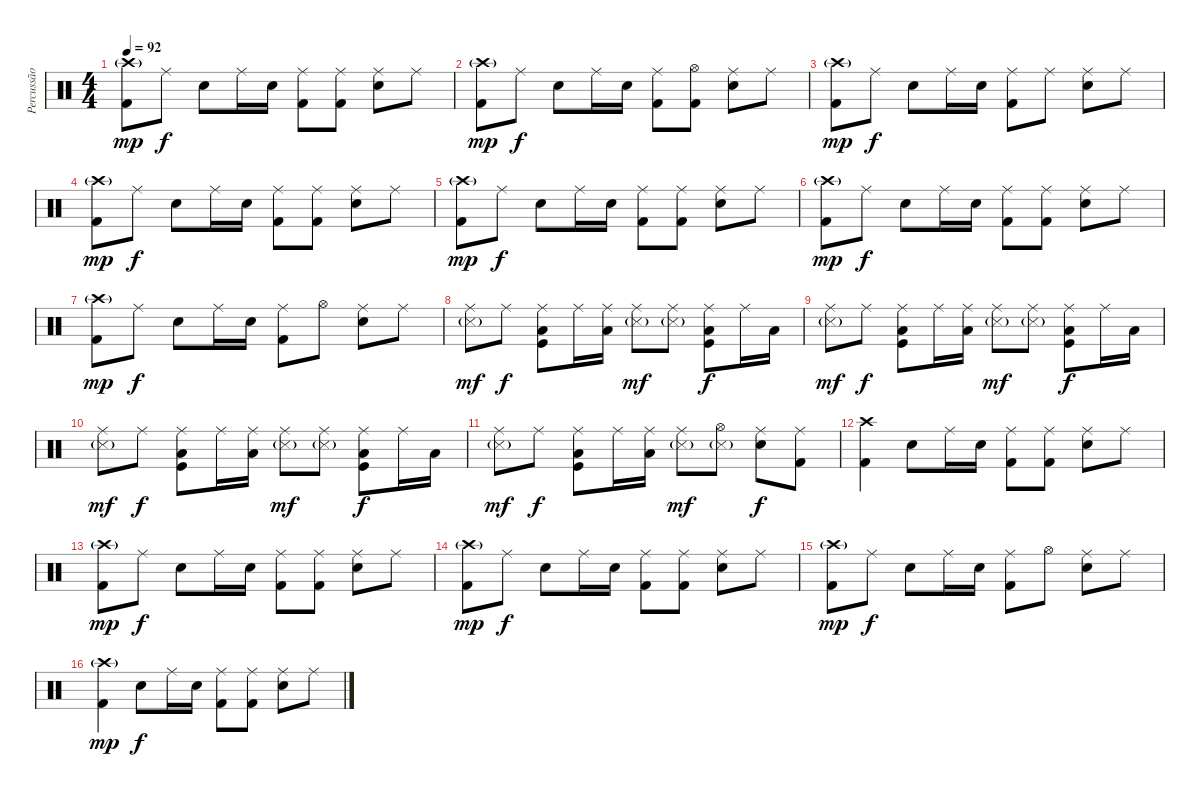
\track ("Percussão - Drums" "Percussão ") {instrument percussion}
\staff {score}
\articulation defaults
\ts (4 4)
\tempo 92
\clef neutral
\ks c
("Crash high (hit)"{g} "Kick (hit) 2").8{dy mp} "Ride (middle)".8{dy f} "Snare (hit) 2".8 "Ride (middle)".16 "Snare (hit) 2".16 ("Ride (middle)" "Kick (hit) 2").8 ("Ride (middle)" "Kick (hit) 2").8 ("Ride (middle)" "Snare (hit) 2").8 "Ride (middle)".8 |
("Crash high (hit)"{g} "Kick (hit) 2").8{dy mp} "Ride (middle)".8{dy f} "Snare (hit) 2".8 "Ride (middle)".16 "Snare (hit) 2".16 ("Ride (middle)" "Kick (hit) 2").8 ("Hi-Hat (open)" "Kick (hit) 2").8 ("Ride (middle)" "Snare (hit) 2").8 "Ride (middle)".8 |
("Crash high (hit)"{g} "Kick (hit) 2").8{dy mp} "Ride (middle)".8{dy f} "Snare (hit) 2".8 "Ride (middle)".16 "Snare (hit) 2".16 ("Ride (middle)" "Kick (hit) 2").8 "Ride (middle)".8 ("Ride (middle)" "Snare (hit) 2").8 "Ride (middle)".8 |
("Crash high (hit)"{g} "Kick (hit) 2").8{dy mp} "Ride (middle)".8{dy f} "Snare (hit) 2".8 "Ride (middle)".16 "Snare (hit) 2".16 ("Ride (middle)" "Kick (hit) 2").8 ("Ride (middle)" "Kick (hit) 2").8 ("Ride (middle)" "Snare (hit) 2").8 "Ride (middle)".8 |
("Crash high (hit)"{g} "Kick (hit) 2").8{dy mp} "Ride (middle)".8{dy f} "Snare (hit) 2".8 "Ride (middle)".16 "Snare (hit) 2".16 ("Ride (middle)" "Kick (hit) 2").8 ("Ride (middle)" "Kick (hit) 2").8 ("Ride (middle)" "Snare (hit) 2").8 "Ride (middle)".8 |
("Crash high (hit)"{g} "Kick (hit) 2").8{dy mp} "Ride (middle)".8{dy f} "Snare (hit) 2".8 "Ride (middle)".16 "Snare (hit) 2".16 ("Ride (middle)" "Kick (hit) 2").8 ("Ride (middle)" "Kick (hit) 2").8 ("Ride (middle)" "Snare (hit) 2").8 "Ride (middle)".8 |
("Crash high (hit)"{g} "Kick (hit) 2").8{dy mp} "Ride (middle)".8{dy f} "Snare (hit) 2".8 "Ride (middle)".16 "Snare (hit) 2".16 ("Ride (middle)" "Kick (hit) 2").8 "Hi-Hat (open)".8 ("Ride (middle)" "Snare (hit) 2").8 "Ride (middle)".8 |
("Ride (middle)" "Metronome (hit)"{g}).8{dy mf} "Ride (middle)".8{dy f} ("Ride (middle)" "Kick (hit)" "Low Floor Tom (hit)").8 "Ride (middle)".16 ("Ride (middle)" "Low Floor Tom (hit)").16 ("Ride (middle)" "Metronome (hit)"{g}).8{dy mf} ("Ride (middle)" "Metronome (hit)"{g}).8 ("Ride (middle)" "Kick (hit)" "Low Floor Tom (hit)").8{dy f} "Ride (middle)".16 "Low Floor Tom (hit)".16 |
("Ride (middle)" "Metronome (hit)"{g}).8{dy mf} "Ride (middle)".8{dy f} ("Ride (middle)" "Kick (hit)" "Low Floor Tom (hit)").8 "Ride (middle)".16 ("Ride (middle)" "Low Floor Tom (hit)").16 ("Ride (middle)" "Metronome (hit)"{g}).8{dy mf} ("Ride (middle)" "Metronome (hit)"{g}).8 ("Ride (middle)" "Kick (hit)" "Low Floor Tom (hit)").8{dy f} "Ride (middle)".16 "Low Floor Tom (hit)".16 |
("Ride (middle)" "Metronome (hit)"{g}).8{dy mf} "Ride (middle)".8{dy f} ("Ride (middle)" "Kick (hit)" "Low Floor Tom (hit)").8 "Ride (middle)".16 ("Ride (middle)" "Low Floor Tom (hit)").16 ("Ride (middle)" "Metronome (hit)"{g}).8{dy mf} ("Ride (middle)" "Metronome (hit)"{g}).8 ("Ride (middle)" "Kick (hit)" "Low Floor Tom (hit)").8{dy f} "Ride (middle)".16 "Low Floor Tom (hit)".16 |
("Ride (middle)" "Metronome (hit)"{g}).8{dy mf} "Ride (middle)".8{dy f} ("Ride (middle)" "Kick (hit)" "Low Floor Tom (hit)").8 "Ride (middle)".16 ("Ride (middle)" "Low Floor Tom (hit)").16 ("Ride (middle)" "Metronome (hit)"{g}).8{dy mf} ("Hi-Hat (open)" "Metronome (hit)"{g}).8 ("Ride (middle)" "Snare (hit) 2").8{dy f} ("Ride (middle)" "Kick (hit) 2").8 |
("Crash high (hit)" "Kick (hit) 2").4 "Snare (hit) 2".8 "Ride (middle)".16 "Snare (hit) 2".16 ("Ride (middle)" "Kick (hit) 2").8 ("Ride (middle)" "Kick (hit) 2").8 ("Ride (middle)" "Snare (hit) 2").8 "Ride (middle)".8 |
("Crash high (hit)"{g} "Kick (hit) 2").8{dy mp} "Ride (middle)".8{dy f} "Snare (hit) 2".8 "Ride (middle)".16 "Snare (hit) 2".16 ("Ride (middle)" "Kick (hit) 2").8 ("Ride (middle)" "Kick (hit) 2").8 ("Ride (middle)" "Snare (hit) 2").8 "Ride (middle)".8 |
("Crash high (hit)"{g} "Kick (hit) 2").8{dy mp} "Ride (middle)".8{dy f} "Snare (hit) 2".8 "Ride (middle)".16 "Snare (hit) 2".16 ("Ride (middle)" "Kick (hit) 2").8 ("Ride (middle)" "Kick (hit) 2").8 ("Ride (middle)" "Snare (hit) 2").8 "Ride (middle)".8 |
("Crash high (hit)"{g} "Kick (hit) 2").8{dy mp} "Ride (middle)".8{dy f} "Snare (hit) 2".8 "Ride (middle)".16 "Snare (hit) 2".16 ("Ride (middle)" "Kick (hit) 2").8 "Hi-Hat (open)".8 ("Ride (middle)" "Snare (hit) 2").8 "Ride (middle)".8 |
("Crash high (hit)"{g} "Kick (hit) 2").4{dy mp} "Snare (hit) 2".8{dy f} "Ride (middle)".16 "Snare (hit) 2".16 ("Ride (middle)" "Kick (hit) 2").8 ("Ride (middle)" "Kick (hit) 2").8 ("Ride (middle)" "Snare (hit) 2").8 "Ride (middle)".8
